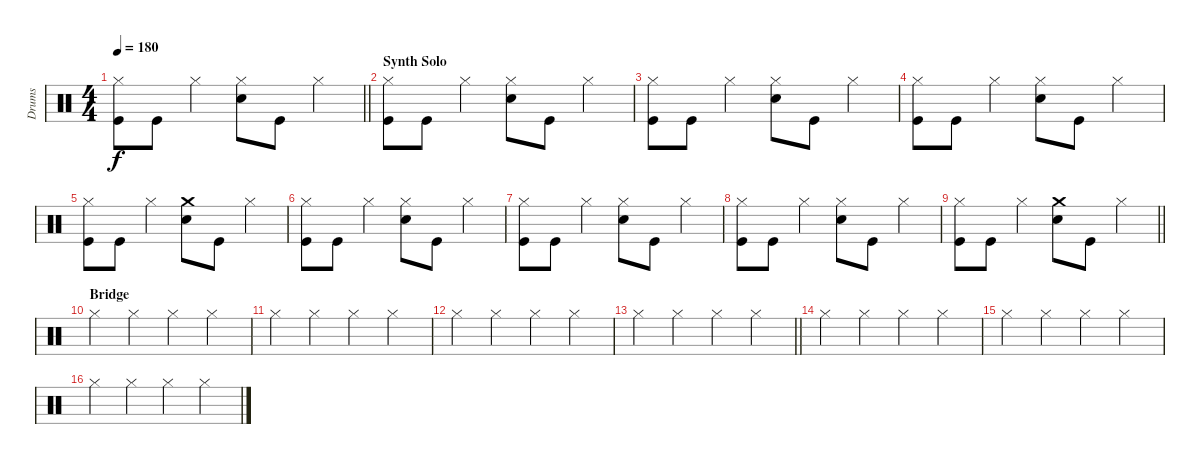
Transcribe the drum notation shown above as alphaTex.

\track ("Drums" "Drums") {instrument percussion}
\staff {score}
\articulation defaults
\ts (4 4)
\tempo 180
\clef neutral
\barLineRight lightlight
\ks c
("Hi-Hat (closed)" "Kick (hit)").8{dy f} "Kick (hit)".8 "Hi-Hat (closed)".4 ("Hi-Hat (closed)" "Snare (hit) 2").8 "Kick (hit)".8 "Hi-Hat (closed)".4 |
\section ("" "Synth Solo")
("Hi-Hat (closed)" "Kick (hit)").8 "Kick (hit)".8 "Hi-Hat (closed)".4 ("Hi-Hat (closed)" "Snare (hit) 2").8 "Kick (hit)".8 "Hi-Hat (closed)".4 |
("Hi-Hat (closed)" "Kick (hit)").8 "Kick (hit)".8 "Hi-Hat (closed)".4 ("Hi-Hat (closed)" "Snare (hit) 2").8 "Kick (hit)".8 "Hi-Hat (closed)".4 |
("Hi-Hat (closed)" "Kick (hit)").8 "Kick (hit)".8 "Hi-Hat (closed)".4 ("Hi-Hat (closed)" "Snare (hit) 2").8 "Kick (hit)".8 "Hi-Hat (closed)".4 |
("Hi-Hat (closed)" "Kick (hit)").8 "Kick (hit)".8 "Hi-Hat (closed)".4 ("Crash medium (hit)" "Snare (hit) 2").8 "Kick (hit)".8 "Hi-Hat (closed)".4 |
("Hi-Hat (closed)" "Kick (hit)").8 "Kick (hit)".8 "Hi-Hat (closed)".4 ("Hi-Hat (closed)" "Snare (hit) 2").8 "Kick (hit)".8 "Hi-Hat (closed)".4 |
("Hi-Hat (closed)" "Kick (hit)").8 "Kick (hit)".8 "Hi-Hat (closed)".4 ("Hi-Hat (closed)" "Snare (hit) 2").8 "Kick (hit)".8 "Hi-Hat (closed)".4 |
("Hi-Hat (closed)" "Kick (hit)").8 "Kick (hit)".8 "Hi-Hat (closed)".4 ("Hi-Hat (closed)" "Snare (hit) 2").8 "Kick (hit)".8 "Hi-Hat (closed)".4 |
\barLineRight lightlight
("Hi-Hat (closed)" "Kick (hit)").8 "Kick (hit)".8 "Hi-Hat (closed)".4 ("Crash medium (hit)" "Snare (hit) 2").8 "Kick (hit)".8 "Hi-Hat (closed)".4 |
\section ("" "Bridge")
"Hi-Hat (closed)".4 "Hi-Hat (closed)".4 "Hi-Hat (closed)".4 "Hi-Hat (closed)".4 |
"Hi-Hat (closed)".4 "Hi-Hat (closed)".4 "Hi-Hat (closed)".4 "Hi-Hat (closed)".4 |
"Hi-Hat (closed)".4 "Hi-Hat (closed)".4 "Hi-Hat (closed)".4 "Hi-Hat (closed)".4 |
\barLineRight lightlight "Hi-Hat (closed)".4 "Hi-Hat (closed)".4 "Hi-Hat (closed)".4 "Hi-Hat (closed)".4
|
"Hi-Hat (closed)".4 "Hi-Hat (closed)".4 "Hi-Hat (closed)".4 "Hi-Hat (closed)".4 |
"Hi-Hat (closed)".4 "Hi-Hat (closed)".4 "Hi-Hat (closed)".4 "Hi-Hat (closed)".4 |
"Hi-Hat (closed)".4 "Hi-Hat (closed)".4 "Hi-Hat (closed)".4 "Hi-Hat (closed)".4
